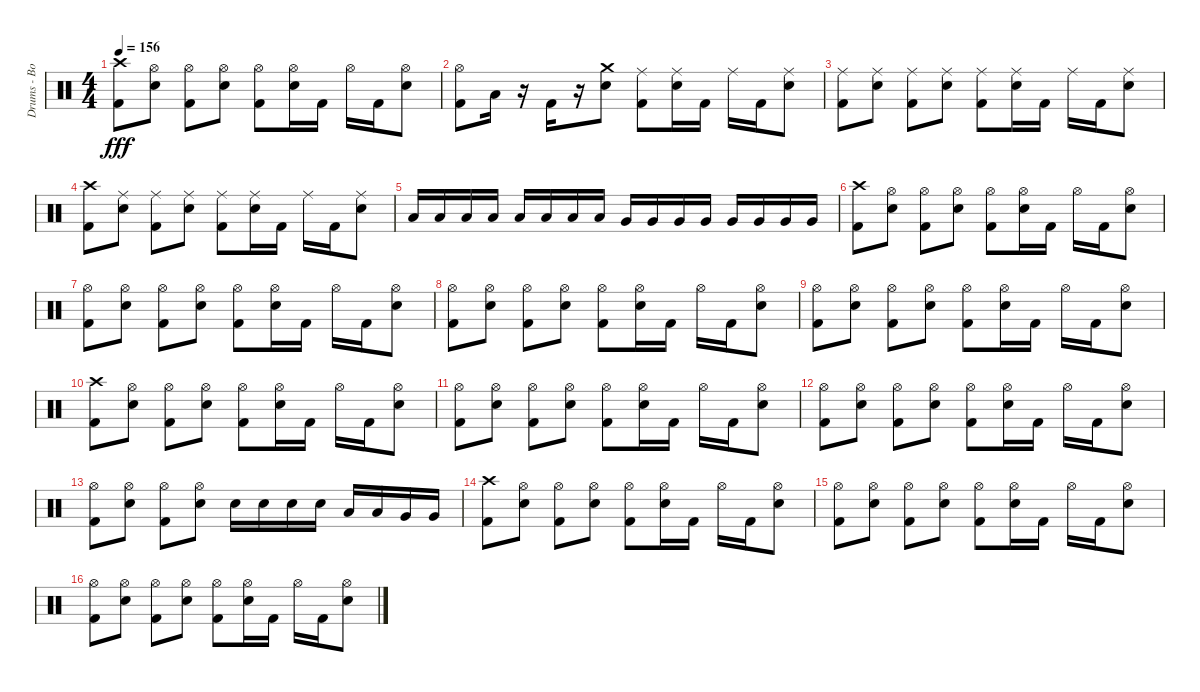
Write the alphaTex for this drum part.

\track ("Drums - Bobby Schayer" "Drums - Bo") {instrument percussion}
\staff {score}
\articulation defaults
\ts (4 4)
\tempo 156
\clef neutral
\ks c
("Kick (hit) 2" "Crash high (hit)").8{dy fff} ("Electric Snare (hit)" "Hi-Hat (open)").8 ("Kick (hit) 2" "Hi-Hat (open)").8 ("Electric Snare (hit)" "Hi-Hat (open)").8 ("Kick (hit) 2" "Hi-Hat (open)").8 ("Electric Snare (hit)" "Hi-Hat (open)").16 "Kick (hit) 2".16 "Hi-Hat (open)".16 "Kick (hit) 2".16 ("Electric Snare (hit)" "Hi-Hat (open)").8 |
("Kick (hit) 2" "Hi-Hat (open)").8 "Low Tom (hit)".16 r.16 "Kick (hit) 2".16 r.16 ("Electric Snare (hit)" "Crash medium (hit)").8 ("Kick (hit) 2" "Ride (middle)").8 ("Electric Snare (hit)" "Ride (middle)").16 "Kick (hit) 2".16 "Ride (middle)".16 "Kick (hit) 2".16 ("Electric Snare (hit)" "Ride (middle)").8 |
("Ride (middle)" "Kick (hit) 2").8 ("Ride (middle)" "Electric Snare (hit)").8 ("Ride (middle)" "Kick (hit) 2").8 ("Ride (middle)" "Electric Snare (hit)").8 ("Ride (middle)" "Kick (hit) 2").8 ("Ride (middle)" "Electric Snare (hit)").16 "Kick (hit) 2".16 "Ride (middle)".16 "Kick (hit) 2".16 ("Ride (middle)" "Electric Snare (hit)").8 |
("Crash high (hit)" "Kick (hit) 2").8 ("Ride (middle)" "Electric Snare (hit)").8 ("Ride (middle)" "Kick (hit) 2").8 ("Ride (middle)" "Electric Snare (hit)").8 ("Ride (middle)" "Kick (hit) 2").8 ("Ride (middle)" "Electric Snare (hit)").16 "Kick (hit) 2".16 "Ride (middle)".16 "Kick (hit) 2".16 ("Ride (middle)" "Electric Snare (hit)").8 |
"Low Tom (hit)".16 "Low Tom (hit)".16 "Low Tom (hit)".16 "Low Tom (hit)".16 "Low Tom (hit)".16 "Low Tom (hit)".16 "Low Tom (hit)".16 "Low Tom (hit)".16 "Very Low Tom (hit)".16 "Very Low Tom (hit)".16 "Very Low Tom (hit)".16 "Very Low Tom (hit)".16 "Very Low Tom (hit)".16 "Very Low Tom (hit)".16 "Very Low Tom (hit)".16 "Very Low Tom (hit)".16 |
("Kick (hit) 2" "Crash high (hit)").8 ("Electric Snare (hit)" "Hi-Hat (open)").8 ("Kick (hit) 2" "Hi-Hat (open)").8 ("Electric Snare (hit)" "Hi-Hat (open)").8 ("Kick (hit) 2" "Hi-Hat (open)").8 ("Electric Snare (hit)" "Hi-Hat (open)").16 "Kick (hit) 2".16 "Hi-Hat (open)".16 "Kick (hit) 2".16 ("Electric Snare (hit)" "Hi-Hat (open)").8 |
("Kick (hit) 2" "Hi-Hat (open)").8 ("Electric Snare (hit)" "Hi-Hat (open)").8 ("Kick (hit) 2" "Hi-Hat (open)").8 ("Electric Snare (hit)" "Hi-Hat (open)").8 ("Kick (hit) 2" "Hi-Hat (open)").8 ("Electric Snare (hit)" "Hi-Hat (open)").16 "Kick (hit) 2".16 "Hi-Hat (open)".16 "Kick (hit) 2".16 ("Electric Snare (hit)" "Hi-Hat (open)").8 |
("Kick (hit) 2" "Hi-Hat (open)").8 ("Electric Snare (hit)" "Hi-Hat (open)").8 ("Kick (hit) 2" "Hi-Hat (open)").8 ("Electric Snare (hit)" "Hi-Hat (open)").8 ("Kick (hit) 2" "Hi-Hat (open)").8 ("Electric Snare (hit)" "Hi-Hat (open)").16 "Kick (hit) 2".16 "Hi-Hat (open)".16 "Kick (hit) 2".16 ("Electric Snare (hit)" "Hi-Hat (open)").8 |
("Kick (hit) 2" "Hi-Hat (open)").8 ("Electric Snare (hit)" "Hi-Hat (open)").8 ("Kick (hit) 2" "Hi-Hat (open)").8 ("Electric Snare (hit)" "Hi-Hat (open)").8 ("Kick (hit) 2" "Hi-Hat (open)").8 ("Electric Snare (hit)" "Hi-Hat (open)").16 "Kick (hit) 2".16 "Hi-Hat (open)".16 "Kick (hit) 2".16 ("Electric Snare (hit)" "Hi-Hat (open)").8 |
("Kick (hit) 2" "Crash high (hit)").8 ("Electric Snare (hit)" "Hi-Hat (open)").8 ("Kick (hit) 2" "Hi-Hat (open)").8 ("Electric Snare (hit)" "Hi-Hat (open)").8 ("Kick (hit) 2" "Hi-Hat (open)").8 ("Electric Snare (hit)" "Hi-Hat (open)").16 "Kick (hit) 2".16 "Hi-Hat (open)".16 "Kick (hit) 2".16 ("Electric Snare (hit)" "Hi-Hat (open)").8 |
("Kick (hit) 2" "Hi-Hat (open)").8 ("Electric Snare (hit)" "Hi-Hat (open)").8 ("Kick (hit) 2" "Hi-Hat (open)").8 ("Electric Snare (hit)" "Hi-Hat (open)").8 ("Kick (hit) 2" "Hi-Hat (open)").8 ("Electric Snare (hit)" "Hi-Hat (open)").16 "Kick (hit) 2".16 "Hi-Hat (open)".16 "Kick (hit) 2".16 ("Electric Snare (hit)" "Hi-Hat (open)").8 |
("Kick (hit) 2" "Hi-Hat (open)").8 ("Electric Snare (hit)" "Hi-Hat (open)").8 ("Kick (hit) 2" "Hi-Hat (open)").8 ("Electric Snare (hit)" "Hi-Hat (open)").8 ("Kick (hit) 2" "Hi-Hat (open)").8 ("Electric Snare (hit)" "Hi-Hat (open)").16 "Kick (hit) 2".16 "Hi-Hat (open)".16 "Kick (hit) 2".16 ("Electric Snare (hit)" "Hi-Hat (open)").8 |
("Kick (hit) 2" "Hi-Hat (open)").8 ("Electric Snare (hit)" "Hi-Hat (open)").8 ("Kick (hit) 2" "Hi-Hat (open)").8 ("Electric Snare (hit)" "Hi-Hat (open)").8 "Electric Snare (hit)".16 "Electric Snare (hit)".16 "Electric Snare (hit)".16 "Electric Snare (hit)".16 "Low Tom (hit)".16 "Low Tom (hit)".16 "Very Low Tom (hit)".16 "Very Low Tom (hit)".16 |
("Kick (hit) 2" "Crash high (hit)").8 ("Electric Snare (hit)" "Hi-Hat (open)").8 ("Kick (hit) 2" "Hi-Hat (open)").8 ("Electric Snare (hit)" "Hi-Hat (open)").8 ("Kick (hit) 2" "Hi-Hat (open)").8 ("Electric Snare (hit)" "Hi-Hat (open)").16 "Kick (hit) 2".16 "Hi-Hat (open)".16 "Kick (hit) 2".16 ("Electric Snare (hit)" "Hi-Hat (open)").8 |
("Kick (hit) 2" "Hi-Hat (open)").8 ("Electric Snare (hit)" "Hi-Hat (open)").8 ("Kick (hit) 2" "Hi-Hat (open)").8 ("Electric Snare (hit)" "Hi-Hat (open)").8 ("Kick (hit) 2" "Hi-Hat (open)").8 ("Electric Snare (hit)" "Hi-Hat (open)").16 "Kick (hit) 2".16 "Hi-Hat (open)".16 "Kick (hit) 2".16 ("Electric Snare (hit)" "Hi-Hat (open)").8 |
("Kick (hit) 2" "Hi-Hat (open)").8 ("Electric Snare (hit)" "Hi-Hat (open)").8 ("Kick (hit) 2" "Hi-Hat (open)").8 ("Electric Snare (hit)" "Hi-Hat (open)").8 ("Kick (hit) 2" "Hi-Hat (open)").8 ("Electric Snare (hit)" "Hi-Hat (open)").16 "Kick (hit) 2".16 "Hi-Hat (open)".16 "Kick (hit) 2".16 ("Electric Snare (hit)" "Hi-Hat (open)").8
